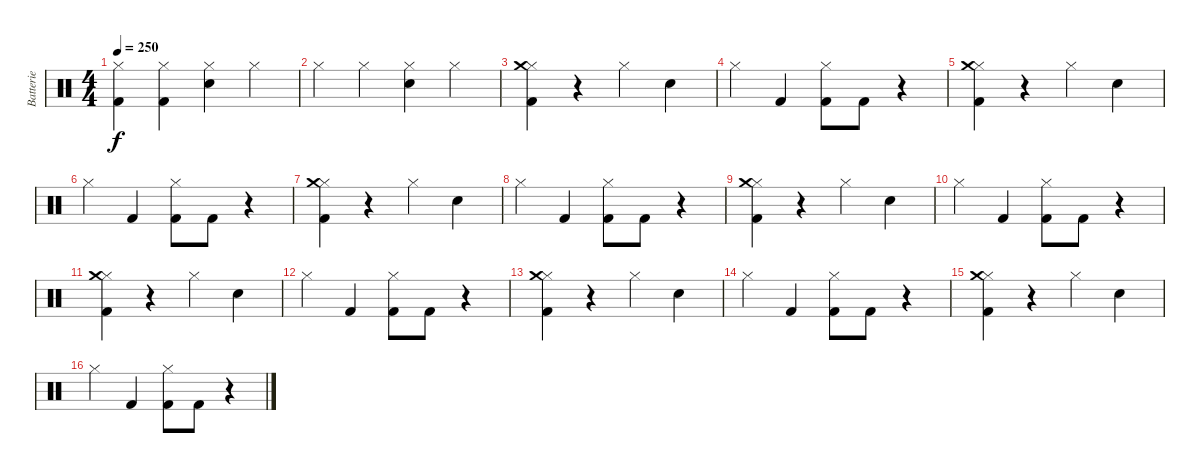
\track ("Batterie" "Batterie") {instrument percussion}
\staff {score}
\articulation defaults
\ts (4 4)
\tempo 250
\clef neutral
\ks c
("Hi-Hat (closed)" "Kick (hit) 2").4{dy f} ("Hi-Hat (closed)" "Kick (hit) 2").4 ("Hi-Hat (closed)" "Electric Snare (hit)").4 "Hi-Hat (closed)".4 |
"Hi-Hat (closed)".4 "Hi-Hat (closed)".4 ("Hi-Hat (closed)" "Electric Snare (hit)").4 "Hi-Hat (closed)".4 |
("Hi-Hat (closed)" "Crash medium (hit)" "Kick (hit) 2").4 r.4 "Hi-Hat (closed)".4 "Electric Snare (hit)".4 |
"Hi-Hat (closed)".4 "Kick (hit) 2".4 ("Hi-Hat (closed)" "Kick (hit) 2").8 "Kick (hit) 2".8 r.4 |
("Hi-Hat (closed)" "Crash medium (hit)" "Kick (hit) 2").4 r.4 "Hi-Hat (closed)".4 "Electric Snare (hit)".4 |
"Hi-Hat (closed)".4 "Kick (hit) 2".4 ("Hi-Hat (closed)" "Kick (hit) 2").8 "Kick (hit) 2".8 r.4 |
("Hi-Hat (closed)" "Crash medium (hit)" "Kick (hit) 2").4 r.4 "Hi-Hat (closed)".4 "Electric Snare (hit)".4 |
"Hi-Hat (closed)".4 "Kick (hit) 2".4 ("Hi-Hat (closed)" "Kick (hit) 2").8 "Kick (hit) 2".8 r.4 |
("Hi-Hat (closed)" "Crash medium (hit)" "Kick (hit) 2").4 r.4 "Hi-Hat (closed)".4 "Electric Snare (hit)".4 |
"Hi-Hat (closed)".4 "Kick (hit) 2".4 ("Hi-Hat (closed)" "Kick (hit) 2").8 "Kick (hit) 2".8 r.4 |
("Hi-Hat (closed)" "Crash medium (hit)" "Kick (hit) 2").4 r.4 "Hi-Hat (closed)".4 "Electric Snare (hit)".4 |
"Hi-Hat (closed)".4 "Kick (hit) 2".4 ("Hi-Hat (closed)" "Kick (hit) 2").8 "Kick (hit) 2".8 r.4 |
("Hi-Hat (closed)" "Crash medium (hit)" "Kick (hit) 2").4 r.4 "Hi-Hat (closed)".4 "Electric Snare (hit)".4 |
"Hi-Hat (closed)".4 "Kick (hit) 2".4 ("Hi-Hat (closed)" "Kick (hit) 2").8 "Kick (hit) 2".8 r.4 |
("Hi-Hat (closed)" "Crash medium (hit)" "Kick (hit) 2").4 r.4 "Hi-Hat (closed)".4 "Electric Snare (hit)".4 |
"Hi-Hat (closed)".4 "Kick (hit) 2".4 ("Hi-Hat (closed)" "Kick (hit) 2").8 "Kick (hit) 2".8 r.4
